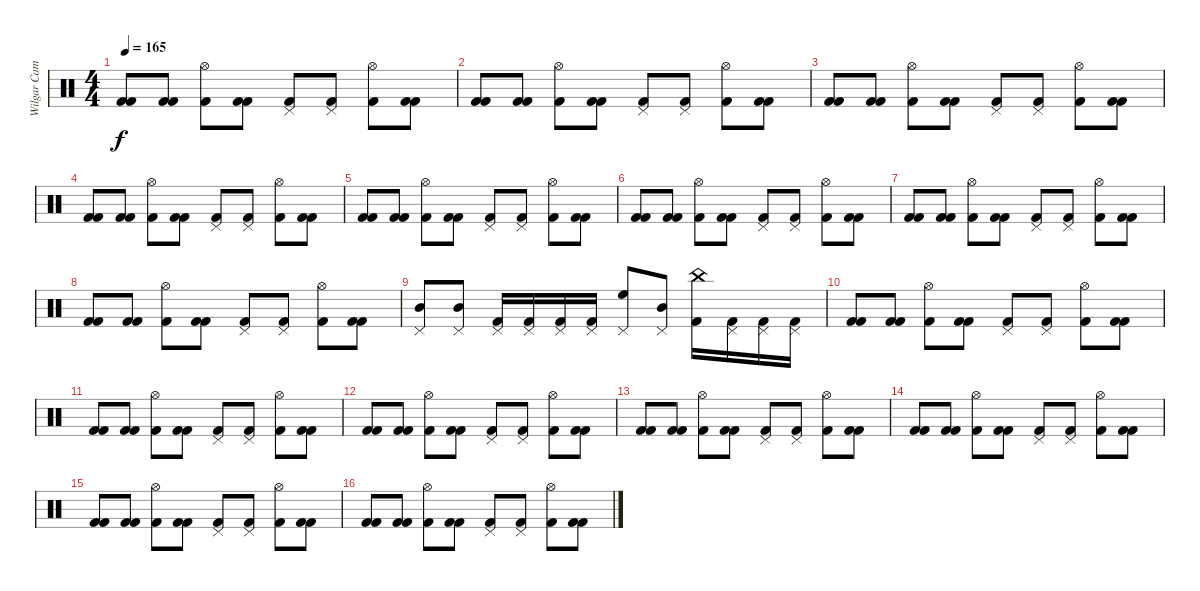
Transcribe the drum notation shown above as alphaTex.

\track ("Wilgar Campbell" "Wilgar Cam") {instrument percussion}
\staff {score}
\articulation defaults
\ts (4 4)
\tempo 165
\clef neutral
\ks c
("Kick (hit) 2" "Kick (hit) 2").8{dy f} ("Kick (hit) 2" "Kick (hit) 2").8 ("Hi-Hat (open)" "Kick (hit) 2").8 ("Kick (hit) 2" "Kick (hit) 2").8 ("Pedal Hi-Hat (hit)" "Kick (hit) 2").8 ("Pedal Hi-Hat (hit)" "Kick (hit) 2").8 ("Hi-Hat (open)" "Kick (hit) 2").8 ("Kick (hit) 2" "Kick (hit) 2").8 |
("Kick (hit) 2" "Kick (hit) 2").8 ("Kick (hit) 2" "Kick (hit) 2").8 ("Hi-Hat (open)" "Kick (hit) 2").8 ("Kick (hit) 2" "Kick (hit) 2").8 ("Pedal Hi-Hat (hit)" "Kick (hit) 2").8 ("Pedal Hi-Hat (hit)" "Kick (hit) 2").8 ("Hi-Hat (open)" "Kick (hit) 2").8 ("Kick (hit) 2" "Kick (hit) 2").8 |
("Kick (hit) 2" "Kick (hit) 2").8 ("Kick (hit) 2" "Kick (hit) 2").8 ("Hi-Hat (open)" "Kick (hit) 2").8 ("Kick (hit) 2" "Kick (hit) 2").8 ("Pedal Hi-Hat (hit)" "Kick (hit) 2").8 ("Pedal Hi-Hat (hit)" "Kick (hit) 2").8 ("Hi-Hat (open)" "Kick (hit) 2").8 ("Kick (hit) 2" "Kick (hit) 2").8 |
("Kick (hit) 2" "Kick (hit) 2").8 ("Kick (hit) 2" "Kick (hit) 2").8 ("Hi-Hat (open)" "Kick (hit) 2").8 ("Kick (hit) 2" "Kick (hit) 2").8 ("Pedal Hi-Hat (hit)" "Kick (hit) 2").8 ("Pedal Hi-Hat (hit)" "Kick (hit) 2").8 ("Hi-Hat (open)" "Kick (hit) 2").8 ("Kick (hit) 2" "Kick (hit) 2").8 |
("Kick (hit) 2" "Kick (hit) 2").8 ("Kick (hit) 2" "Kick (hit) 2").8 ("Hi-Hat (open)" "Kick (hit) 2").8 ("Kick (hit) 2" "Kick (hit) 2").8 ("Pedal Hi-Hat (hit)" "Kick (hit) 2").8 ("Pedal Hi-Hat (hit)" "Kick (hit) 2").8 ("Hi-Hat (open)" "Kick (hit) 2").8 ("Kick (hit) 2" "Kick (hit) 2").8 |
("Kick (hit) 2" "Kick (hit) 2").8 ("Kick (hit) 2" "Kick (hit) 2").8 ("Hi-Hat (open)" "Kick (hit) 2").8 ("Kick (hit) 2" "Kick (hit) 2").8 ("Pedal Hi-Hat (hit)" "Kick (hit) 2").8 ("Pedal Hi-Hat (hit)" "Kick (hit) 2").8 ("Hi-Hat (open)" "Kick (hit) 2").8 ("Kick (hit) 2" "Kick (hit) 2").8 |
("Kick (hit) 2" "Kick (hit) 2").8 ("Kick (hit) 2" "Kick (hit) 2").8 ("Hi-Hat (open)" "Kick (hit) 2").8 ("Kick (hit) 2" "Kick (hit) 2").8 ("Pedal Hi-Hat (hit)" "Kick (hit) 2").8 ("Pedal Hi-Hat (hit)" "Kick (hit) 2").8 ("Hi-Hat (open)" "Kick (hit) 2").8 ("Kick (hit) 2" "Kick (hit) 2").8 |
("Kick (hit) 2" "Kick (hit) 2").8 ("Kick (hit) 2" "Kick (hit) 2").8 ("Hi-Hat (open)" "Kick (hit) 2").8 ("Kick (hit) 2" "Kick (hit) 2").8 ("Pedal Hi-Hat (hit)" "Kick (hit) 2").8 ("Pedal Hi-Hat (hit)" "Kick (hit) 2").8 ("Hi-Hat (open)" "Kick (hit) 2").8 ("Kick (hit) 2" "Kick (hit) 2").8 |
("Pedal Hi-Hat (hit)" "Mid Tom (hit)").8 ("Pedal Hi-Hat (hit)" "Mid Tom (hit)").8 ("Pedal Hi-Hat (hit)" "Kick (hit) 2").16 ("Pedal Hi-Hat (hit)" "Kick (hit) 2").16 ("Pedal Hi-Hat (hit)" "Kick (hit) 2").16 ("Pedal Hi-Hat (hit)" "Kick (hit) 2").16 ("Pedal Hi-Hat (hit)" "High Floor Tom (hit)").8 ("Pedal Hi-Hat (hit)" "Mid Tom (hit)").8 ("China (hit)" "Kick (hit) 2").16 ("Pedal Hi-Hat (hit)" "Kick (hit) 2").16 ("Pedal Hi-Hat (hit)" "Kick (hit) 2").16 ("Pedal Hi-Hat (hit)" "Kick (hit) 2").16 |
("Kick (hit) 2" "Kick (hit) 2").8 ("Kick (hit) 2" "Kick (hit) 2").8 ("Hi-Hat (open)" "Kick (hit) 2").8 ("Kick (hit) 2" "Kick (hit) 2").8 ("Pedal Hi-Hat (hit)" "Kick (hit) 2").8 ("Pedal Hi-Hat (hit)" "Kick (hit) 2").8 ("Hi-Hat (open)" "Kick (hit) 2").8 ("Kick (hit) 2" "Kick (hit) 2").8 |
("Kick (hit) 2" "Kick (hit) 2").8 ("Kick (hit) 2" "Kick (hit) 2").8 ("Hi-Hat (open)" "Kick (hit) 2").8 ("Kick (hit) 2" "Kick (hit) 2").8 ("Pedal Hi-Hat (hit)" "Kick (hit) 2").8 ("Pedal Hi-Hat (hit)" "Kick (hit) 2").8 ("Hi-Hat (open)" "Kick (hit) 2").8 ("Kick (hit) 2" "Kick (hit) 2").8 |
("Kick (hit) 2" "Kick (hit) 2").8 ("Kick (hit) 2" "Kick (hit) 2").8 ("Hi-Hat (open)" "Kick (hit) 2").8 ("Kick (hit) 2" "Kick (hit) 2").8 ("Pedal Hi-Hat (hit)" "Kick (hit) 2").8 ("Pedal Hi-Hat (hit)" "Kick (hit) 2").8 ("Hi-Hat (open)" "Kick (hit) 2").8 ("Kick (hit) 2" "Kick (hit) 2").8 |
("Kick (hit) 2" "Kick (hit) 2").8 ("Kick (hit) 2" "Kick (hit) 2").8 ("Hi-Hat (open)" "Kick (hit) 2").8 ("Kick (hit) 2" "Kick (hit) 2").8 ("Pedal Hi-Hat (hit)" "Kick (hit) 2").8 ("Pedal Hi-Hat (hit)" "Kick (hit) 2").8 ("Hi-Hat (open)" "Kick (hit) 2").8 ("Kick (hit) 2" "Kick (hit) 2").8 |
("Kick (hit) 2" "Kick (hit) 2").8 ("Kick (hit) 2" "Kick (hit) 2").8 ("Hi-Hat (open)" "Kick (hit) 2").8 ("Kick (hit) 2" "Kick (hit) 2").8 ("Pedal Hi-Hat (hit)" "Kick (hit) 2").8 ("Pedal Hi-Hat (hit)" "Kick (hit) 2").8 ("Hi-Hat (open)" "Kick (hit) 2").8 ("Kick (hit) 2" "Kick (hit) 2").8 |
("Kick (hit) 2" "Kick (hit) 2").8 ("Kick (hit) 2" "Kick (hit) 2").8 ("Hi-Hat (open)" "Kick (hit) 2").8 ("Kick (hit) 2" "Kick (hit) 2").8 ("Pedal Hi-Hat (hit)" "Kick (hit) 2").8 ("Pedal Hi-Hat (hit)" "Kick (hit) 2").8 ("Hi-Hat (open)" "Kick (hit) 2").8 ("Kick (hit) 2" "Kick (hit) 2").8 |
("Kick (hit) 2" "Kick (hit) 2").8 ("Kick (hit) 2" "Kick (hit) 2").8 ("Hi-Hat (open)" "Kick (hit) 2").8 ("Kick (hit) 2" "Kick (hit) 2").8 ("Pedal Hi-Hat (hit)" "Kick (hit) 2").8 ("Pedal Hi-Hat (hit)" "Kick (hit) 2").8 ("Hi-Hat (open)" "Kick (hit) 2").8 ("Kick (hit) 2" "Kick (hit) 2").8
